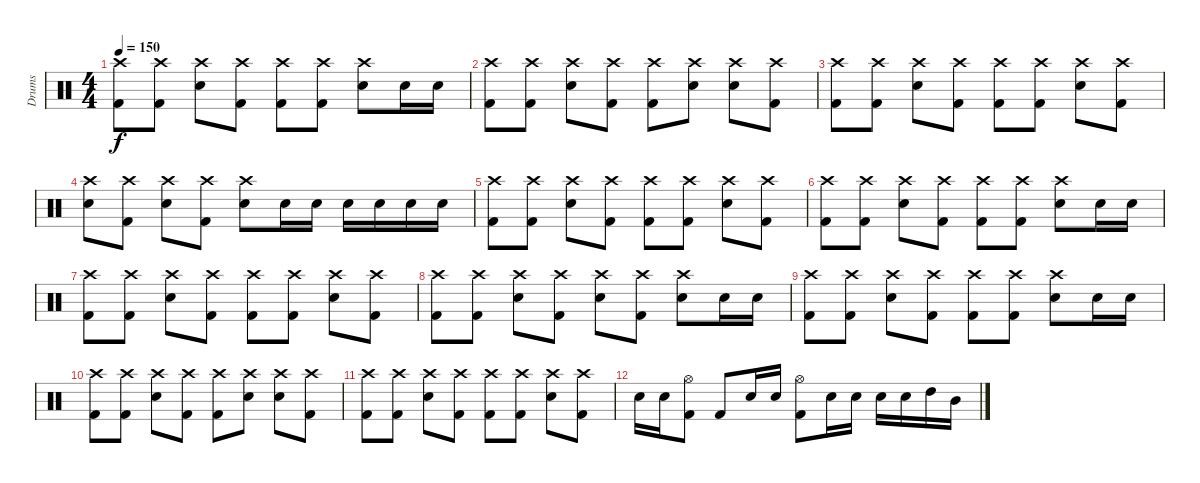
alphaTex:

\track ("Drums" "Drums") {instrument percussion}
\staff {score}
\articulation defaults
\ts (4 4)
\tempo 150
\clef neutral
\ks c
("Crash high (hit)" "Kick (hit) 2").8{dy f} ("Crash high (hit)" "Kick (hit) 2").8 ("Crash high (hit)" "Electric Snare (hit)").8 ("Crash high (hit)" "Kick (hit) 2").8 ("Crash high (hit)" "Kick (hit) 2").8 ("Crash high (hit)" "Kick (hit) 2").8 ("Crash high (hit)" "Electric Snare (hit)").8 "Electric Snare (hit)".16 "Electric Snare (hit)".16 |
("Crash high (hit)" "Kick (hit) 2").8 ("Crash high (hit)" "Kick (hit) 2").8 ("Crash high (hit)" "Electric Snare (hit)").8 ("Crash high (hit)" "Kick (hit) 2").8 ("Crash high (hit)" "Kick (hit) 2").8 ("Crash high (hit)" "Electric Snare (hit)").8 ("Crash high (hit)" "Electric Snare (hit)").8 ("Crash high (hit)" "Kick (hit) 2").8 |
("Crash high (hit)" "Kick (hit) 2").8 ("Crash high (hit)" "Kick (hit) 2").8 ("Crash high (hit)" "Electric Snare (hit)").8 ("Crash high (hit)" "Kick (hit) 2").8 ("Crash high (hit)" "Kick (hit) 2").8 ("Crash high (hit)" "Kick (hit) 2").8 ("Crash high (hit)" "Electric Snare (hit)").8 ("Crash high (hit)" "Kick (hit) 2").8 |
("Crash high (hit)" "Electric Snare (hit)").8 ("Crash high (hit)" "Kick (hit) 2").8 ("Crash high (hit)" "Electric Snare (hit)").8 ("Crash high (hit)" "Kick (hit) 2").8 ("Crash high (hit)" "Electric Snare (hit)").8 "Electric Snare (hit)".16 "Electric Snare (hit)".16 "Electric Snare (hit)".16 "Electric Snare (hit)".16 "Electric Snare (hit)".16 "Electric Snare (hit)".16 |
("Crash high (hit)" "Kick (hit) 2").8 ("Crash high (hit)" "Kick (hit) 2").8 ("Crash high (hit)" "Electric Snare (hit)").8 ("Crash high (hit)" "Kick (hit) 2").8 ("Crash high (hit)" "Kick (hit) 2").8 ("Crash high (hit)" "Kick (hit) 2").8 ("Crash high (hit)" "Electric Snare (hit)").8 ("Crash high (hit)" "Kick (hit) 2").8 |
("Crash high (hit)" "Kick (hit) 2").8 ("Crash high (hit)" "Kick (hit) 2").8 ("Crash high (hit)" "Electric Snare (hit)").8 ("Crash high (hit)" "Kick (hit) 2").8 ("Crash high (hit)" "Kick (hit) 2").8 ("Crash high (hit)" "Kick (hit) 2").8 ("Crash high (hit)" "Electric Snare (hit)").8 "Electric Snare (hit)".16 "Electric Snare (hit)".16 |
("Crash high (hit)" "Kick (hit) 2").8 ("Crash high (hit)" "Kick (hit) 2").8 ("Crash high (hit)" "Electric Snare (hit)").8 ("Crash high (hit)" "Kick (hit) 2").8 ("Crash high (hit)" "Kick (hit) 2").8 ("Crash high (hit)" "Kick (hit) 2").8 ("Crash high (hit)" "Electric Snare (hit)").8 ("Crash high (hit)" "Kick (hit) 2").8 |
("Crash high (hit)" "Kick (hit) 2").8 ("Crash high (hit)" "Kick (hit) 2").8 ("Crash high (hit)" "Electric Snare (hit)").8 ("Crash high (hit)" "Kick (hit) 2").8 ("Crash high (hit)" "Electric Snare (hit)").8 ("Crash high (hit)" "Kick (hit) 2").8 ("Crash high (hit)" "Electric Snare (hit)").8 "Electric Snare (hit)".16 "Electric Snare (hit)".16 |
("Crash high (hit)" "Kick (hit) 2").8 ("Crash high (hit)" "Kick (hit) 2").8 ("Crash high (hit)" "Electric Snare (hit)").8 ("Crash high (hit)" "Kick (hit) 2").8 ("Crash high (hit)" "Kick (hit) 2").8 ("Crash high (hit)" "Kick (hit) 2").8 ("Crash high (hit)" "Electric Snare (hit)").8 "Electric Snare (hit)".16 "Electric Snare (hit)".16 |
("Crash high (hit)" "Kick (hit) 2").8 ("Crash high (hit)" "Kick (hit) 2").8 ("Crash high (hit)" "Electric Snare (hit)").8 ("Crash high (hit)" "Kick (hit) 2").8 ("Crash high (hit)" "Kick (hit) 2").8 ("Crash high (hit)" "Electric Snare (hit)").8 ("Crash high (hit)" "Electric Snare (hit)").8 ("Crash high (hit)" "Kick (hit) 2").8 |
("Crash high (hit)" "Kick (hit) 2").8 ("Crash high (hit)" "Kick (hit) 2").8 ("Crash high (hit)" "Electric Snare (hit)").8 ("Crash high (hit)" "Kick (hit) 2").8 ("Crash high (hit)" "Kick (hit) 2").8 ("Crash high (hit)" "Kick (hit) 2").8 ("Crash high (hit)" "Electric Snare (hit)").8 ("Crash high (hit)" "Kick (hit) 2").8 |
"Electric Snare (hit)".16 "Electric Snare (hit)".16 ("Hi-Hat (open)" "Kick (hit) 2").8 "Kick (hit) 2".8 "Electric Snare (hit)".16 "Electric Snare (hit)".16 ("Hi-Hat (open)" "Kick (hit) 2").8 "Electric Snare (hit)".16 "Electric Snare (hit)".16 "Electric Snare (hit)".16 "Electric Snare (hit)".16 "High Tom (hit)".16 "Mid Tom (hit)".16
